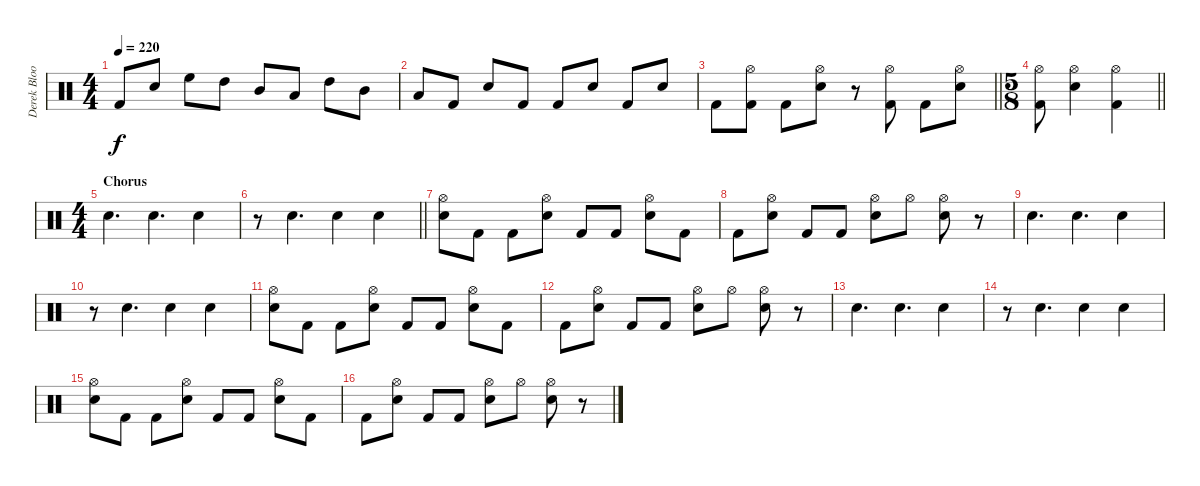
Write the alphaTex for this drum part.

\track ("Derek Bloom - Drums" "Derek Bloo") {instrument percussion}
\staff {score}
\articulation defaults
\ts (4 4)
\tempo 220
\clef neutral
\ks c "Kick (hit) 2".8{dy f} "Electric Snare (hit)".8 "High Floor Tom (hit)".8 "High Tom (hit)".8 "Mid Tom (hit)".8 "Low Tom (hit)".8 "High Tom (hit)".8 "Mid Tom (hit)".8
|
"Low Tom (hit)".8 "Kick (hit) 2".8 "Electric Snare (hit)".8 "Kick (hit) 2".8 "Kick (hit) 2".8 "Electric Snare (hit)".8 "Kick (hit) 2".8 "Electric Snare (hit)".8 |
\barLineRight lightlight "Kick (hit) 2".8
("Hi-Hat (open)" "Kick (hit) 2").8 "Kick (hit) 2".8 ("Hi-Hat (open)" "Electric Snare (hit)").8 r.8 ("Hi-Hat (open)" "Kick (hit) 2").8 "Kick (hit) 2".8 ("Hi-Hat (open)" "Electric Snare (hit)").8 |
\ts (5 8)
\barLineRight lightlight
("Hi-Hat (open)" "Kick (hit) 2").8 ("Hi-Hat (open)" "Electric Snare (hit)").4 ("Hi-Hat (open)" "Kick (hit) 2").4 |
\ts (4 4)
\section ("" "Chorus")
"Electric Snare (hit)".4{d} "Electric Snare (hit)".4{d} "Electric Snare (hit)".4 |
\barLineRight lightlight
r.8 "Electric Snare (hit)".4{d} "Electric Snare (hit)".4 "Electric Snare (hit)".4 |
\section ("" "")
("Hi-Hat (open)" "Electric Snare (hit)").8 "Kick (hit) 2".8 "Kick (hit) 2".8 ("Hi-Hat (open)" "Electric Snare (hit)").8 "Kick (hit) 2".8 "Kick (hit) 2".8 ("Hi-Hat (open)" "Electric Snare (hit)").8 "Kick (hit) 2".8 |
"Kick (hit) 2".8 ("Hi-Hat (open)" "Electric Snare (hit)").8 "Kick (hit) 2".8 "Kick (hit) 2".8 ("Hi-Hat (open)" "Electric Snare (hit)").8 "Hi-Hat (open)".8 ("Hi-Hat (open)" "Electric Snare (hit)").8 r.8 |
"Electric Snare (hit)".4{d} "Electric Snare (hit)".4{d} "Electric Snare (hit)".4 |
r.8 "Electric Snare (hit)".4{d} "Electric Snare (hit)".4 "Electric Snare (hit)".4 |
("Hi-Hat (open)" "Electric Snare (hit)").8 "Kick (hit) 2".8 "Kick (hit) 2".8 ("Hi-Hat (open)" "Electric Snare (hit)").8 "Kick (hit) 2".8 "Kick (hit) 2".8 ("Hi-Hat (open)" "Electric Snare (hit)").8 "Kick (hit) 2".8 |
"Kick (hit) 2".8 ("Hi-Hat (open)" "Electric Snare (hit)").8 "Kick (hit) 2".8 "Kick (hit) 2".8 ("Hi-Hat (open)" "Electric Snare (hit)").8 "Hi-Hat (open)".8 ("Hi-Hat (open)" "Electric Snare (hit)").8 r.8 |
"Electric Snare (hit)".4{d} "Electric Snare (hit)".4{d} "Electric Snare (hit)".4 |
r.8 "Electric Snare (hit)".4{d} "Electric Snare (hit)".4 "Electric Snare (hit)".4 |
("Hi-Hat (open)" "Electric Snare (hit)").8 "Kick (hit) 2".8 "Kick (hit) 2".8 ("Hi-Hat (open)" "Electric Snare (hit)").8 "Kick (hit) 2".8 "Kick (hit) 2".8 ("Hi-Hat (open)" "Electric Snare (hit)").8 "Kick (hit) 2".8 |
"Kick (hit) 2".8 ("Hi-Hat (open)" "Electric Snare (hit)").8 "Kick (hit) 2".8 "Kick (hit) 2".8 ("Hi-Hat (open)" "Electric Snare (hit)").8 "Hi-Hat (open)".8 ("Hi-Hat (open)" "Electric Snare (hit)").8 r.8
